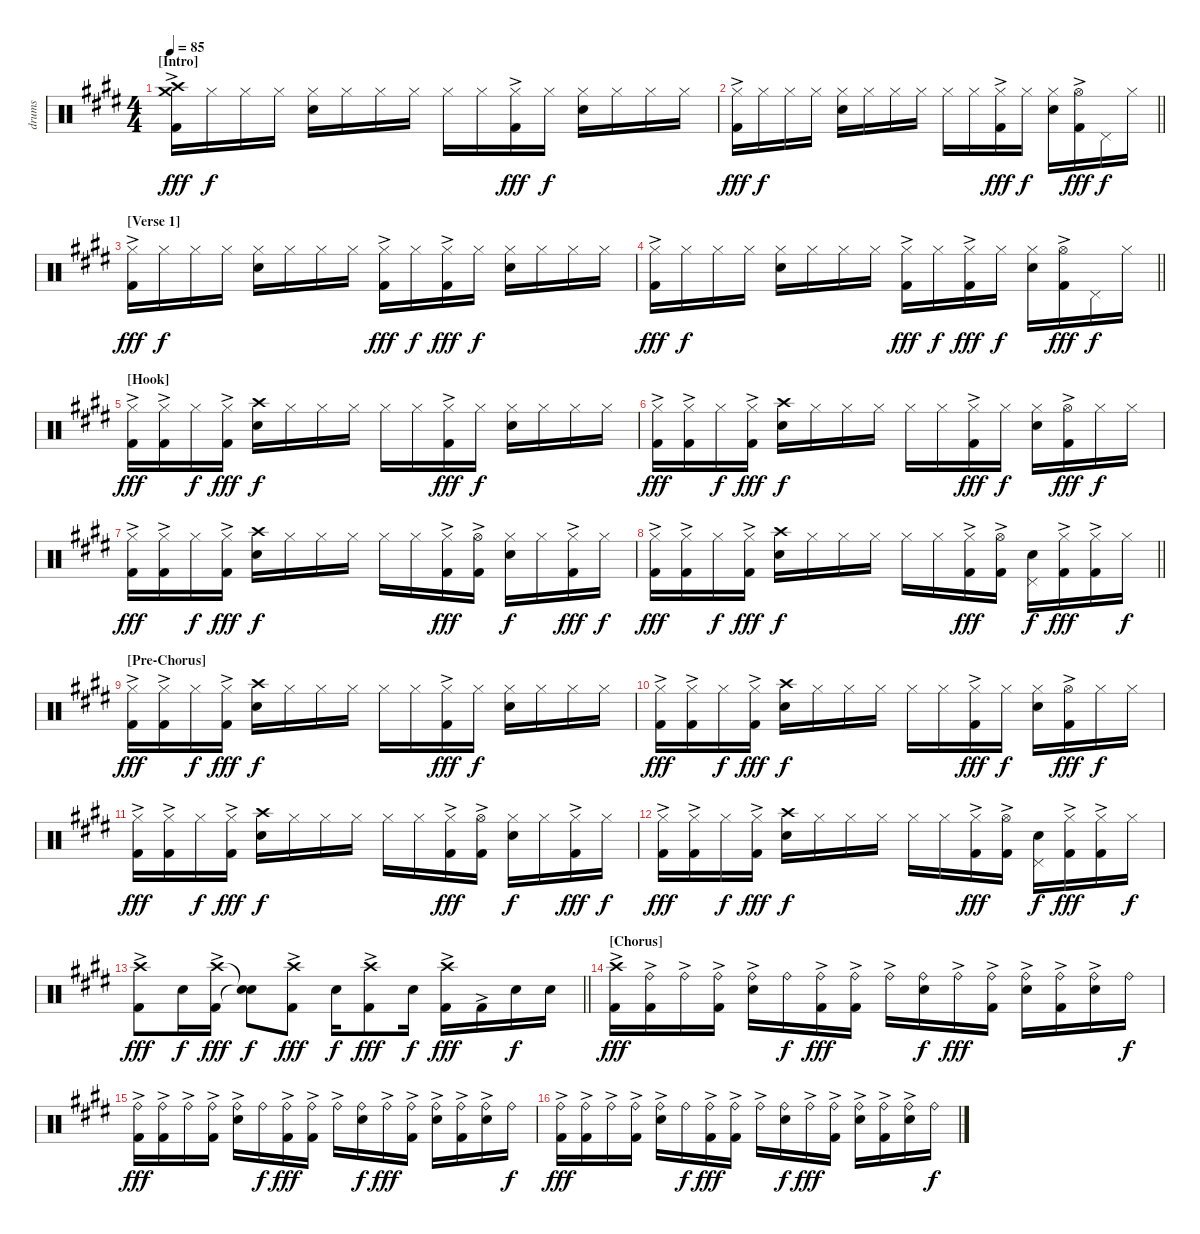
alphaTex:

\track ("drums" "drums") {instrument percussion}
\staff {score}
\articulation defaults
\ts (4 4)
\section ("" "[Intro]")
\tempo 85
\clef neutral
\ks e
("Crash high (hit)" "Crash medium (hit)" "Kick (hit) 2"{ac}).16{dy fff} "Hi-Hat (closed)".16{dy f} "Hi-Hat (closed)".16 "Hi-Hat (closed)".16 ("Hi-Hat (closed)" "Snare (hit) 2").16 "Hi-Hat (closed)".16 "Hi-Hat (closed)".16 "Hi-Hat (closed)".16 "Hi-Hat (closed)".16 "Hi-Hat (closed)".16 ("Hi-Hat (closed)" "Kick (hit) 2"{ac}).16{dy fff} "Hi-Hat (closed)".16{dy f} ("Hi-Hat (closed)" "Snare (hit) 2").16 "Hi-Hat (closed)".16 "Hi-Hat (closed)".16 "Hi-Hat (closed)".16 |
\barLineRight lightlight
("Hi-Hat (closed)" "Kick (hit) 2"{ac}).16{dy fff} "Hi-Hat (closed)".16{dy f} "Hi-Hat (closed)".16 "Hi-Hat (closed)".16 ("Hi-Hat (closed)" "Snare (hit) 2").16 "Hi-Hat (closed)".16 "Hi-Hat (closed)".16 "Hi-Hat (closed)".16 "Hi-Hat (closed)".16 "Hi-Hat (closed)".16 ("Hi-Hat (closed)" "Kick (hit) 2"{ac}).16{dy fff} "Hi-Hat (closed)".16{dy f} ("Hi-Hat (closed)" "Snare (hit) 2").16 ("Hi-Hat (open)" "Kick (hit) 2"{ac}).16{dy fff} "Pedal Hi-Hat (hit)".16{dy f} "Hi-Hat (closed)".16 |
\section ("" "[Verse 1]")
("Hi-Hat (closed)" "Kick (hit) 2"{ac}).16{dy fff} "Hi-Hat (closed)".16{dy f} "Hi-Hat (closed)".16 "Hi-Hat (closed)".16 ("Hi-Hat (closed)" "Snare (hit) 2").16 "Hi-Hat (closed)".16 "Hi-Hat (closed)".16 "Hi-Hat (closed)".16 ("Hi-Hat (closed)" "Kick (hit) 2"{ac}).16{dy fff} "Hi-Hat (closed)".16{dy f} ("Hi-Hat (closed)" "Kick (hit) 2"{ac}).16{dy fff} "Hi-Hat (closed)".16{dy f} ("Hi-Hat (closed)" "Snare (hit) 2").16 "Hi-Hat (closed)".16 "Hi-Hat (closed)".16 "Hi-Hat (closed)".16 |
\barLineRight lightlight
("Hi-Hat (closed)" "Kick (hit) 2"{ac}).16{dy fff} "Hi-Hat (closed)".16{dy f} "Hi-Hat (closed)".16 "Hi-Hat (closed)".16 ("Hi-Hat (closed)" "Snare (hit) 2").16 "Hi-Hat (closed)".16 "Hi-Hat (closed)".16 "Hi-Hat (closed)".16 ("Hi-Hat (closed)" "Kick (hit) 2"{ac}).16{dy fff} "Hi-Hat (closed)".16{dy f} ("Hi-Hat (closed)" "Kick (hit) 2"{ac}).16{dy fff} "Hi-Hat (closed)".16{dy f} ("Hi-Hat (closed)" "Snare (hit) 2").16 ("Hi-Hat (open)" "Kick (hit) 2"{ac}).16{dy fff} "Pedal Hi-Hat (hit)".16{dy f} "Hi-Hat (closed)".16 |
\section ("" "[Hook]")
("Hi-Hat (closed)" "Kick (hit) 2"{ac}).16{dy fff} ("Hi-Hat (closed)" "Kick (hit) 2"{ac}).16 "Hi-Hat (closed)".16{dy f} ("Hi-Hat (closed)" "Kick (hit) 2"{ac}).16{dy fff} ("Crash high (hit)" "Snare (hit) 2").16{dy f} "Hi-Hat (closed)".16 "Hi-Hat (closed)".16 "Hi-Hat (closed)".16 "Hi-Hat (closed)".16 "Hi-Hat (closed)".16 ("Hi-Hat (closed)" "Kick (hit) 2"{ac}).16{dy fff} "Hi-Hat (closed)".16{dy f} ("Hi-Hat (closed)" "Snare (hit) 2").16 "Hi-Hat (closed)".16 "Hi-Hat (closed)".16 "Hi-Hat (closed)".16 |
("Hi-Hat (closed)" "Kick (hit) 2"{ac}).16{dy fff} ("Hi-Hat (closed)" "Kick (hit) 2"{ac}).16 "Hi-Hat (closed)".16{dy f} ("Hi-Hat (closed)" "Kick (hit) 2"{ac}).16{dy fff} ("Crash high (hit)" "Snare (hit) 2").16{dy f} "Hi-Hat (closed)".16 "Hi-Hat (closed)".16 "Hi-Hat (closed)".16 "Hi-Hat (closed)".16 "Hi-Hat (closed)".16 ("Hi-Hat (closed)" "Kick (hit) 2"{ac}).16{dy fff} "Hi-Hat (closed)".16{dy f} ("Hi-Hat (closed)" "Snare (hit) 2").16 ("Hi-Hat (open)" "Kick (hit) 2"{ac}).16{dy fff} "Hi-Hat (closed)".16{dy f} "Hi-Hat (closed)".16 |
("Hi-Hat (closed)" "Kick (hit) 2"{ac}).16{dy fff} ("Hi-Hat (closed)" "Kick (hit) 2"{ac}).16 "Hi-Hat (closed)".16{dy f} ("Hi-Hat (closed)" "Kick (hit) 2"{ac}).16{dy fff} ("Crash high (hit)" "Snare (hit) 2").16{dy f} "Hi-Hat (closed)".16 "Hi-Hat (closed)".16 "Hi-Hat (closed)".16 "Hi-Hat (closed)".16 "Hi-Hat (closed)".16 ("Hi-Hat (closed)" "Kick (hit) 2"{ac}).16{dy fff} ("Hi-Hat (open)" "Kick (hit) 2"{ac}).16 ("Hi-Hat (closed)" "Snare (hit) 2").16{dy f} "Hi-Hat (closed)".16 ("Hi-Hat (closed)" "Kick (hit) 2"{ac}).16{dy fff} "Hi-Hat (closed)".16{dy f} |
\barLineRight lightlight
("Hi-Hat (closed)" "Kick (hit) 2"{ac}).16{dy fff} ("Hi-Hat (closed)" "Kick (hit) 2"{ac}).16 "Hi-Hat (closed)".16{dy f} ("Hi-Hat (closed)" "Kick (hit) 2"{ac}).16{dy fff} ("Crash high (hit)" "Snare (hit) 2").16{dy f} "Hi-Hat (closed)".16 "Hi-Hat (closed)".16 "Hi-Hat (closed)".16 "Hi-Hat (closed)".16 "Hi-Hat (closed)".16 ("Hi-Hat (closed)" "Kick (hit) 2"{ac}).16{dy fff} ("Hi-Hat (open)" "Kick (hit) 2"{ac}).16 ("Pedal Hi-Hat (hit)" "Snare (hit) 2").16{dy f} ("Hi-Hat (closed)" "Kick (hit) 2"{ac}).16{dy fff} ("Hi-Hat (closed)" "Kick (hit) 2"{ac}).16 "Hi-Hat (closed)".16{dy f} |
\section ("" "[Pre-Chorus]")
("Hi-Hat (closed)" "Kick (hit) 2"{ac}).16{dy fff} ("Hi-Hat (closed)" "Kick (hit) 2"{ac}).16 "Hi-Hat (closed)".16{dy f} ("Hi-Hat (closed)" "Kick (hit) 2"{ac}).16{dy fff} ("Crash high (hit)" "Snare (hit) 2").16{dy f} "Hi-Hat (closed)".16 "Hi-Hat (closed)".16 "Hi-Hat (closed)".16 "Hi-Hat (closed)".16 "Hi-Hat (closed)".16 ("Hi-Hat (closed)" "Kick (hit) 2"{ac}).16{dy fff} "Hi-Hat (closed)".16{dy f} ("Hi-Hat (closed)" "Snare (hit) 2").16 "Hi-Hat (closed)".16 "Hi-Hat (closed)".16 "Hi-Hat (closed)".16 |
("Hi-Hat (closed)" "Kick (hit) 2"{ac}).16{dy fff} ("Hi-Hat (closed)" "Kick (hit) 2"{ac}).16 "Hi-Hat (closed)".16{dy f} ("Hi-Hat (closed)" "Kick (hit) 2"{ac}).16{dy fff} ("Crash high (hit)" "Snare (hit) 2").16{dy f} "Hi-Hat (closed)".16 "Hi-Hat (closed)".16 "Hi-Hat (closed)".16 "Hi-Hat (closed)".16 "Hi-Hat (closed)".16 ("Hi-Hat (closed)" "Kick (hit) 2"{ac}).16{dy fff} "Hi-Hat (closed)".16{dy f} ("Hi-Hat (closed)" "Snare (hit) 2").16 ("Hi-Hat (open)" "Kick (hit) 2"{ac}).16{dy fff} "Hi-Hat (closed)".16{dy f} "Hi-Hat (closed)".16 |
("Hi-Hat (closed)" "Kick (hit) 2"{ac}).16{dy fff} ("Hi-Hat (closed)" "Kick (hit) 2"{ac}).16 "Hi-Hat (closed)".16{dy f} ("Hi-Hat (closed)" "Kick (hit) 2"{ac}).16{dy fff} ("Crash high (hit)" "Snare (hit) 2").16{dy f} "Hi-Hat (closed)".16 "Hi-Hat (closed)".16 "Hi-Hat (closed)".16 "Hi-Hat (closed)".16 "Hi-Hat (closed)".16 ("Hi-Hat (closed)" "Kick (hit) 2"{ac}).16{dy fff} ("Hi-Hat (open)" "Kick (hit) 2"{ac}).16 ("Hi-Hat (closed)" "Snare (hit) 2").16{dy f} "Hi-Hat (closed)".16 ("Hi-Hat (closed)" "Kick (hit) 2"{ac}).16{dy fff} "Hi-Hat (closed)".16{dy f} |
("Hi-Hat (closed)" "Kick (hit) 2"{ac}).16{dy fff} ("Hi-Hat (closed)" "Kick (hit) 2"{ac}).16 "Hi-Hat (closed)".16{dy f} ("Hi-Hat (closed)" "Kick (hit) 2"{ac}).16{dy fff} ("Crash high (hit)" "Snare (hit) 2").16{dy f} "Hi-Hat (closed)".16 "Hi-Hat (closed)".16 "Hi-Hat (closed)".16 "Hi-Hat (closed)".16 "Hi-Hat (closed)".16 ("Hi-Hat (closed)" "Kick (hit) 2"{ac}).16{dy fff} ("Hi-Hat (open)" "Kick (hit) 2"{ac}).16 ("Pedal Hi-Hat (hit)" "Snare (hit) 2").16{dy f} ("Hi-Hat (closed)" "Kick (hit) 2"{ac}).16{dy fff} ("Hi-Hat (closed)" "Kick (hit) 2"{ac}).16 "Hi-Hat (closed)".16{dy f} |
\barLineRight lightlight
("Crash high (hit)" "Kick (hit) 2"{ac}).8{dy fff} "Snare (hit) 2".16{dy f} ("Crash high (hit)" "Kick (hit) 2"{ac}).16{dy fff} ("Snare (hit)"{t} "Snare (hit)"{t}).8{dy f} ("Crash high (hit)" "Kick (hit) 2"{ac}).8{dy fff} "Snare (hit) 2".16{dy f} ("Crash high (hit)" "Kick (hit) 2"{ac}).8{dy fff} "Snare (hit) 2".16{dy f} ("Crash high (hit)" "Kick (hit) 2"{ac}).16{dy fff} "Kick (hit) 2"{ac}.16 "Snare (hit) 2".16{dy f} "Snare (hit) 2".16 |
\section ("" "[Chorus]")
("Crash high (hit)" "Kick (hit) 2"{ac}).16{dy fff} ("Ride (bell)" "Kick (hit) 2"{ac}).16 "Ride (bell)"{ac}.16 ("Ride (bell)" "Kick (hit) 2"{ac}).16 ("Ride (bell)"{ac} "Snare (hit) 2").16 "Ride (bell)".16{dy f} ("Ride (bell)"{ac} "Kick (hit) 2"{ac}).16{dy fff} ("Ride (bell)" "Kick (hit) 2"{ac}).16 "Ride (bell)"{ac}.16 ("Ride (bell)" "Snare (hit) 2").16{dy f} "Ride (bell)"{ac}.16{dy fff} ("Ride (bell)" "Kick (hit) 2"{ac}).16 ("Ride (bell)"{ac} "Snare (hit) 2").16 ("Ride (bell)" "Kick (hit) 2"{ac}).16 ("Ride (bell)"{ac} "Snare (hit) 2").16 "Ride (bell)".16{dy f} |
("Ride (bell)"{ac} "Kick (hit) 2"{ac}).16{dy fff} ("Ride (bell)" "Kick (hit) 2"{ac}).16 "Ride (bell)"{ac}.16 ("Ride (bell)" "Kick (hit) 2"{ac}).16 ("Ride (bell)"{ac} "Snare (hit) 2").16 "Ride (bell)".16{dy f} ("Ride (bell)"{ac} "Kick (hit) 2"{ac}).16{dy fff} ("Ride (bell)" "Kick (hit) 2"{ac}).16 "Ride (bell)"{ac}.16 ("Ride (bell)" "Snare (hit) 2").16{dy f} "Ride (bell)"{ac}.16{dy fff} ("Ride (bell)" "Kick (hit) 2"{ac}).16 ("Ride (bell)"{ac} "Snare (hit) 2").16 ("Ride (bell)" "Kick (hit) 2"{ac}).16 ("Ride (bell)"{ac} "Snare (hit) 2").16 "Ride (bell)".16{dy f} |
("Ride (bell)"{ac} "Kick (hit) 2"{ac}).16{dy fff} ("Ride (bell)" "Kick (hit) 2"{ac}).16 "Ride (bell)"{ac}.16 ("Ride (bell)" "Kick (hit) 2"{ac}).16 ("Ride (bell)"{ac} "Snare (hit) 2").16 "Ride (bell)".16{dy f} ("Ride (bell)"{ac} "Kick (hit) 2"{ac}).16{dy fff} ("Ride (bell)" "Kick (hit) 2"{ac}).16 "Ride (bell)"{ac}.16 ("Ride (bell)" "Snare (hit) 2").16{dy f} "Ride (bell)"{ac}.16{dy fff} ("Ride (bell)" "Kick (hit) 2"{ac}).16 ("Ride (bell)"{ac} "Snare (hit) 2").16 ("Ride (bell)" "Kick (hit) 2"{ac}).16 ("Ride (bell)"{ac} "Snare (hit) 2").16 "Ride (bell)".16{dy f}
